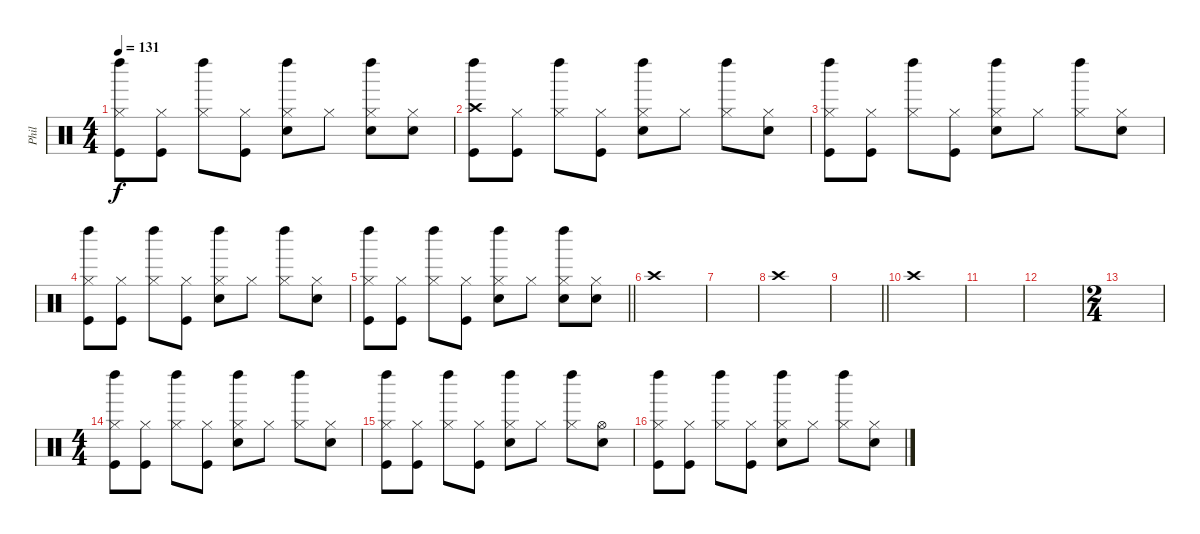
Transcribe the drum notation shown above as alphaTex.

\track ("Phil" "Phil") {instrument percussion}
\staff {score}
\articulation defaults
\ts (4 4)
\tempo 131
\clef neutral
\ks c
("Left Maraca (hit)" "Hi-Hat (closed)" "Kick (hit)").8{dy f} ("Hi-Hat (closed)" "Kick (hit)").8 ("Left Maraca (hit)" "Hi-Hat (closed)").8 ("Hi-Hat (closed)" "Kick (hit)").8 ("Left Maraca (hit)" "Hi-Hat (closed)" "Electric Snare (hit)").8 "Hi-Hat (closed)".8 ("Left Maraca (hit)" "Hi-Hat (closed)" "Electric Snare (hit)").8 ("Hi-Hat (closed)" "Electric Snare (hit)").8 |
("Left Maraca (hit)" "Crash high (hit)" "Kick (hit)").8 ("Hi-Hat (closed)" "Kick (hit)").8 ("Left Maraca (hit)" "Hi-Hat (closed)").8 ("Hi-Hat (closed)" "Kick (hit)").8 ("Left Maraca (hit)" "Hi-Hat (closed)" "Electric Snare (hit)").8 "Hi-Hat (closed)".8 ("Left Maraca (hit)" "Hi-Hat (closed)").8 ("Hi-Hat (closed)" "Electric Snare (hit)").8 |
("Left Maraca (hit)" "Hi-Hat (closed)" "Kick (hit)").8 ("Hi-Hat (closed)" "Kick (hit)").8 ("Left Maraca (hit)" "Hi-Hat (closed)").8 ("Hi-Hat (closed)" "Kick (hit)").8 ("Left Maraca (hit)" "Hi-Hat (closed)" "Electric Snare (hit)").8 "Hi-Hat (closed)".8 ("Left Maraca (hit)" "Hi-Hat (closed)").8 ("Hi-Hat (closed)" "Electric Snare (hit)").8 |
("Left Maraca (hit)" "Hi-Hat (closed)" "Kick (hit)").8 ("Hi-Hat (closed)" "Kick (hit)").8 ("Left Maraca (hit)" "Hi-Hat (closed)").8 ("Hi-Hat (closed)" "Kick (hit)").8 ("Left Maraca (hit)" "Hi-Hat (closed)" "Electric Snare (hit)").8 "Hi-Hat (closed)".8 ("Left Maraca (hit)" "Hi-Hat (closed)").8 ("Hi-Hat (closed)" "Electric Snare (hit)").8 |
\barLineRight lightlight
("Left Maraca (hit)" "Hi-Hat (closed)" "Kick (hit)").8 ("Hi-Hat (closed)" "Kick (hit)").8 ("Left Maraca (hit)" "Hi-Hat (closed)").8 ("Hi-Hat (closed)" "Kick (hit)").8 ("Left Maraca (hit)" "Hi-Hat (closed)" "Electric Snare (hit)").8 "Hi-Hat (closed)".8 ("Left Maraca (hit)" "Hi-Hat (closed)" "Electric Snare (hit)").8 ("Hi-Hat (closed)" "Electric Snare (hit)").8 |
"Crash high (hit)".1 |
|
"Crash high (hit)".1 |
\barLineRight lightlight
|
"Crash high (hit)".1 |
|
|
\ts (2 4)
|
\ts (4 4)
("Left Maraca (hit)" "Hi-Hat (closed)" "Kick (hit)").8 ("Hi-Hat (closed)" "Kick (hit)").8 ("Left Maraca (hit)" "Hi-Hat (closed)").8 ("Hi-Hat (closed)" "Kick (hit)").8 ("Left Maraca (hit)" "Hi-Hat (closed)" "Electric Snare (hit)").8 "Hi-Hat (closed)".8 ("Left Maraca (hit)" "Hi-Hat (closed)").8 ("Hi-Hat (closed)" "Electric Snare (hit)").8 |
("Left Maraca (hit)" "Hi-Hat (closed)" "Kick (hit)").8 ("Hi-Hat (closed)" "Kick (hit)").8 ("Left Maraca (hit)" "Hi-Hat (closed)").8 ("Hi-Hat (closed)" "Kick (hit)").8 ("Left Maraca (hit)" "Hi-Hat (closed)" "Electric Snare (hit)").8 "Hi-Hat (closed)".8 ("Left Maraca (hit)" "Hi-Hat (closed)").8 ("Hi-Hat (open)" "Electric Snare (hit)").8 |
("Left Maraca (hit)" "Hi-Hat (closed)" "Kick (hit)").8 ("Hi-Hat (closed)" "Kick (hit)").8 ("Left Maraca (hit)" "Hi-Hat (closed)").8 ("Hi-Hat (closed)" "Kick (hit)").8 ("Left Maraca (hit)" "Hi-Hat (closed)" "Electric Snare (hit)").8 "Hi-Hat (closed)".8 ("Left Maraca (hit)" "Hi-Hat (closed)").8 ("Hi-Hat (closed)" "Electric Snare (hit)").8
